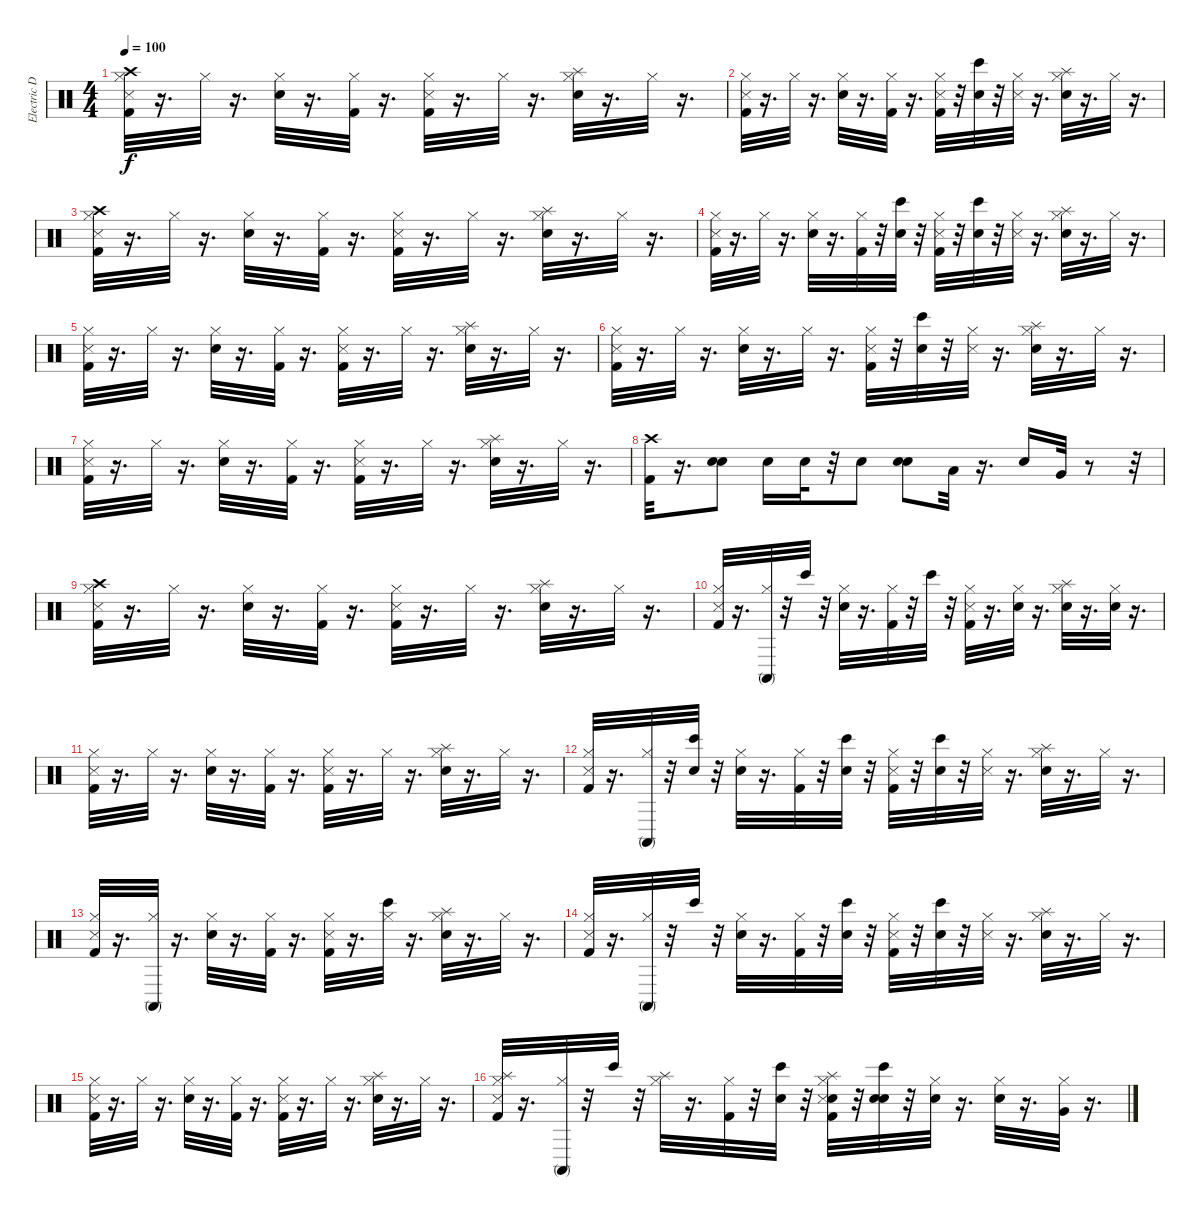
\track ("Electric Drums" "Electric D") {instrument percussion}
\staff {score}
\articulation defaults
\ts (4 4)
\tempo 100
\clef neutral
\ks c
("Crash high (hit)" "Kick (hit) 2" "Hi-Hat (closed)" "Metronome (hit)").32{dy f} r.16{d} "Hi-Hat (closed)".32 r.16{d} ("Electric Snare (hit)" "Hi-Hat (closed)").32 r.16{d} ("Kick (hit) 2" "Hi-Hat (closed)").32 r.16{d} ("Kick (hit) 2" "Hi-Hat (closed)" "Metronome (hit)").32 r.16{d} "Hi-Hat (closed)".32 r.16{d} ("Electric Snare (hit)" "Hi-Hat (closed)" "Splash (hit)").32 r.16{d} "Hi-Hat (closed)".32 r.16{d} |
("Kick (hit) 2" "Hi-Hat (closed)" "Metronome (hit)").32 r.16{d} "Hi-Hat (closed)".32 r.16{d} ("Electric Snare (hit)" "Hi-Hat (closed)").32 r.16{d} ("Kick (hit) 2" "Hi-Hat (closed)").32 r.16{d} ("Kick (hit) 2" "Hi-Hat (closed)" "Metronome (hit)").32 r.32 ("Snare (hit)" "Bongo High (hit)").32 r.32 ("Hi-Hat (closed)" "Metronome (hit)").32 r.16{d} ("Electric Snare (hit)" "Hi-Hat (closed)" "Splash (hit)").32 r.16{d} "Hi-Hat (closed)".32 r.16{d} |
("Crash high (hit)" "Kick (hit) 2" "Hi-Hat (closed)" "Metronome (hit)").32 r.16{d} "Hi-Hat (closed)".32 r.16{d} ("Electric Snare (hit)" "Hi-Hat (closed)").32 r.16{d} ("Kick (hit) 2" "Hi-Hat (closed)").32 r.16{d} ("Kick (hit) 2" "Hi-Hat (closed)" "Metronome (hit)").32 r.16{d} "Hi-Hat (closed)".32 r.16{d} ("Electric Snare (hit)" "Hi-Hat (closed)" "Splash (hit)").32 r.16{d} "Hi-Hat (closed)".32 r.16{d} |
("Kick (hit) 2" "Hi-Hat (closed)" "Metronome (hit)").32 r.16{d} "Hi-Hat (closed)".32 r.16{d} ("Electric Snare (hit)" "Hi-Hat (closed)").32 r.16{d} ("Kick (hit) 2" "Hi-Hat (closed)").32 r.32 ("Snare (hit)" "Bongo High (hit)").32 r.32 ("Kick (hit) 2" "Hi-Hat (closed)" "Metronome (hit)").32 r.32 ("Snare (hit)" "Bongo High (hit)").32 r.32 ("Hi-Hat (closed)" "Metronome (hit)").32 r.16{d} ("Electric Snare (hit)" "Hi-Hat (closed)" "Splash (hit)").32 r.16{d} "Hi-Hat (closed)".32 r.16{d} |
("Kick (hit) 2" "Hi-Hat (closed)" "Metronome (hit)").32 r.16{d} "Hi-Hat (closed)".32 r.16{d} ("Electric Snare (hit)" "Hi-Hat (closed)").32 r.16{d} ("Kick (hit) 2" "Hi-Hat (closed)").32 r.16{d} ("Kick (hit) 2" "Hi-Hat (closed)" "Metronome (hit)").32 r.16{d} "Hi-Hat (closed)".32 r.16{d} ("Electric Snare (hit)" "Hi-Hat (closed)" "Splash (hit)").32 r.16{d} "Hi-Hat (closed)".32 r.16{d} |
("Kick (hit) 2" "Hi-Hat (closed)" "Metronome (hit)").32 r.16{d} "Hi-Hat (closed)".32 r.16{d} ("Electric Snare (hit)" "Hi-Hat (closed)").32 r.16{d} "Hi-Hat (closed)".32 r.16{d} ("Kick (hit) 2" "Hi-Hat (closed)" "Metronome (hit)").32 r.32 ("Snare (hit)" "Bongo High (hit)").32 r.32 ("Hi-Hat (closed)" "Metronome (hit)").32 r.16{d} ("Electric Snare (hit)" "Hi-Hat (closed)" "Splash (hit)").32 r.16{d} "Hi-Hat (closed)".32 r.16{d} |
("Kick (hit) 2" "Hi-Hat (closed)" "Metronome (hit)").32 r.16{d} "Hi-Hat (closed)".32 r.16{d} ("Electric Snare (hit)" "Hi-Hat (closed)").32 r.16{d} ("Kick (hit) 2" "Hi-Hat (closed)").32 r.16{d} ("Kick (hit) 2" "Hi-Hat (closed)" "Metronome (hit)").32 r.16{d} "Hi-Hat (closed)".32 r.16{d} ("Electric Snare (hit)" "Hi-Hat (closed)" "Splash (hit)").32 r.16{d} "Hi-Hat (closed)".32 r.16{d} |
("Crash high (hit)" "Kick (hit) 2").32 r.16{d} ("Snare (hit)" "Electric Snare (hit)").8 "Snare (hit)".16 "Snare (hit) 2".32 r.32 "Snare (hit)".8 ("Snare (hit)" "Electric Snare (hit)").8 "Low Tom (hit)".32 r.16{d} "Snare (hit)".16 "Very Low Tom (hit)".32 r.8 r.32 |
("Crash high (hit)" "Kick (hit) 2" "Hi-Hat (closed)" "Metronome (hit)").32 r.16{d} "Hi-Hat (closed)".32 r.16{d} ("Electric Snare (hit)" "Hi-Hat (closed)").32 r.16{d} ("Kick (hit) 2" "Hi-Hat (closed)").32 r.16{d} ("Kick (hit) 2" "Hi-Hat (closed)" "Metronome (hit)").32 r.16{d} "Hi-Hat (closed)".32 r.16{d} ("Electric Snare (hit)" "Hi-Hat (closed)" "Splash (hit)").32 r.16{d} "Hi-Hat (closed)".32 r.16{d} |
("Kick (hit) 2" "Hi-Hat (closed)" "Metronome (hit)").32 r.16{d} ("Hi-Hat (closed)" "Conga high (mute)").32 r.32 "Bongo High (hit)".32 r.32 ("Electric Snare (hit)" "Hi-Hat (closed)").32 r.16{d} ("Kick (hit) 2" "Hi-Hat (closed)").32 r.32 "Bongo High (hit)".32 r.32 ("Kick (hit) 2" "Hi-Hat (closed)" "Metronome (hit)").32 r.16{d} ("Snare (hit) 2" "Hi-Hat (closed)").32 r.16{d} ("Electric Snare (hit)" "Hi-Hat (closed)" "Splash (hit)").32 r.16{d} ("Snare (hit) 2" "Hi-Hat (closed)").32 r.16{d} |
("Kick (hit) 2" "Hi-Hat (closed)" "Metronome (hit)").32 r.16{d} "Hi-Hat (closed)".32 r.16{d} ("Electric Snare (hit)" "Hi-Hat (closed)").32 r.16{d} ("Kick (hit) 2" "Hi-Hat (closed)").32 r.16{d} ("Kick (hit) 2" "Hi-Hat (closed)" "Metronome (hit)").32 r.16{d} "Hi-Hat (closed)".32 r.16{d} ("Electric Snare (hit)" "Hi-Hat (closed)" "Splash (hit)").32 r.16{d} "Hi-Hat (closed)".32 r.16{d} |
("Kick (hit) 2" "Hi-Hat (closed)" "Metronome (hit)").32 r.16{d} ("Hi-Hat (closed)" "Conga high (mute)").32 r.32 ("Snare (hit)" "Bongo High (hit)").32 r.32 ("Electric Snare (hit)" "Hi-Hat (closed)").32 r.16{d} ("Kick (hit) 2" "Hi-Hat (closed)").32 r.32 ("Snare (hit)" "Bongo High (hit)").32 r.32 ("Kick (hit) 2" "Hi-Hat (closed)" "Metronome (hit)").32 r.32 ("Snare (hit)" "Bongo High (hit)").32 r.32 ("Hi-Hat (closed)" "Metronome (hit)").32 r.16{d} ("Electric Snare (hit)" "Hi-Hat (closed)" "Splash (hit)").32 r.16{d} "Hi-Hat (closed)".32 r.16{d} |
("Kick (hit) 2" "Hi-Hat (closed)" "Metronome (hit)").32 r.16{d} ("Hi-Hat (closed)" "Conga high (mute)").32 r.16{d} ("Electric Snare (hit)" "Hi-Hat (closed)").32 r.16{d} ("Kick (hit) 2" "Hi-Hat (closed)").32 r.16{d} ("Kick (hit) 2" "Hi-Hat (closed)" "Metronome (hit)").32 r.16{d} ("Hi-Hat (closed)" "Bongo High (hit)").32 r.16{d} ("Electric Snare (hit)" "Hi-Hat (closed)" "Splash (hit)").32 r.16{d} "Hi-Hat (closed)".32 r.16{d} |
("Kick (hit) 2" "Hi-Hat (closed)" "Metronome (hit)").32 r.16{d} ("Hi-Hat (closed)" "Conga high (mute)").32 r.32 "Bongo High (hit)".32 r.32 ("Electric Snare (hit)" "Hi-Hat (closed)").32 r.16{d} ("Kick (hit) 2" "Hi-Hat (closed)").32 r.32 ("Snare (hit)" "Bongo High (hit)").32 r.32 ("Kick (hit) 2" "Hi-Hat (closed)" "Metronome (hit)").32 r.32 ("Snare (hit)" "Bongo High (hit)").32 r.32 ("Hi-Hat (closed)" "Metronome (hit)").32 r.16{d} ("Electric Snare (hit)" "Hi-Hat (closed)" "Splash (hit)").32 r.16{d} "Hi-Hat (closed)".32 r.16{d} |
("Kick (hit) 2" "Hi-Hat (closed)" "Metronome (hit)").32 r.16{d} "Hi-Hat (closed)".32 r.16{d} ("Electric Snare (hit)" "Hi-Hat (closed)").32 r.16{d} ("Kick (hit) 2" "Hi-Hat (closed)").32 r.16{d} ("Kick (hit) 2" "Hi-Hat (closed)" "Metronome (hit)").32 r.16{d} "Hi-Hat (closed)".32 r.16{d} ("Electric Snare (hit)" "Hi-Hat (closed)" "Splash (hit)").32 r.16{d} "Hi-Hat (closed)".32 r.16{d} |
("Kick (hit) 2" "Hi-Hat (closed)" "Splash (hit)" "Metronome (hit)").32 r.16{d} ("Hi-Hat (closed)" "Conga high (mute)").32 r.32 "Bongo High (hit)".32 r.32 ("Hi-Hat (closed)" "Splash (hit)").32 r.16{d} ("Kick (hit) 2" "Hi-Hat (closed)").32 r.32 ("Snare (hit)" "Bongo High (hit)").32 r.32 ("Snare (hit) 2" "Kick (hit) 2" "Hi-Hat (closed)" "Splash (hit)" "Metronome (hit)").32 r.32 ("Snare (hit) 2" "Snare (hit)" "Bongo High (hit)").32 r.32 ("Snare (hit) 2" "Hi-Hat (closed)").32 r.16{d} ("Electric Snare (hit)" "Hi-Hat (closed)").32 r.16{d} ("Very Low Tom (hit)" "Hi-Hat (closed)").32 r.16{d}
